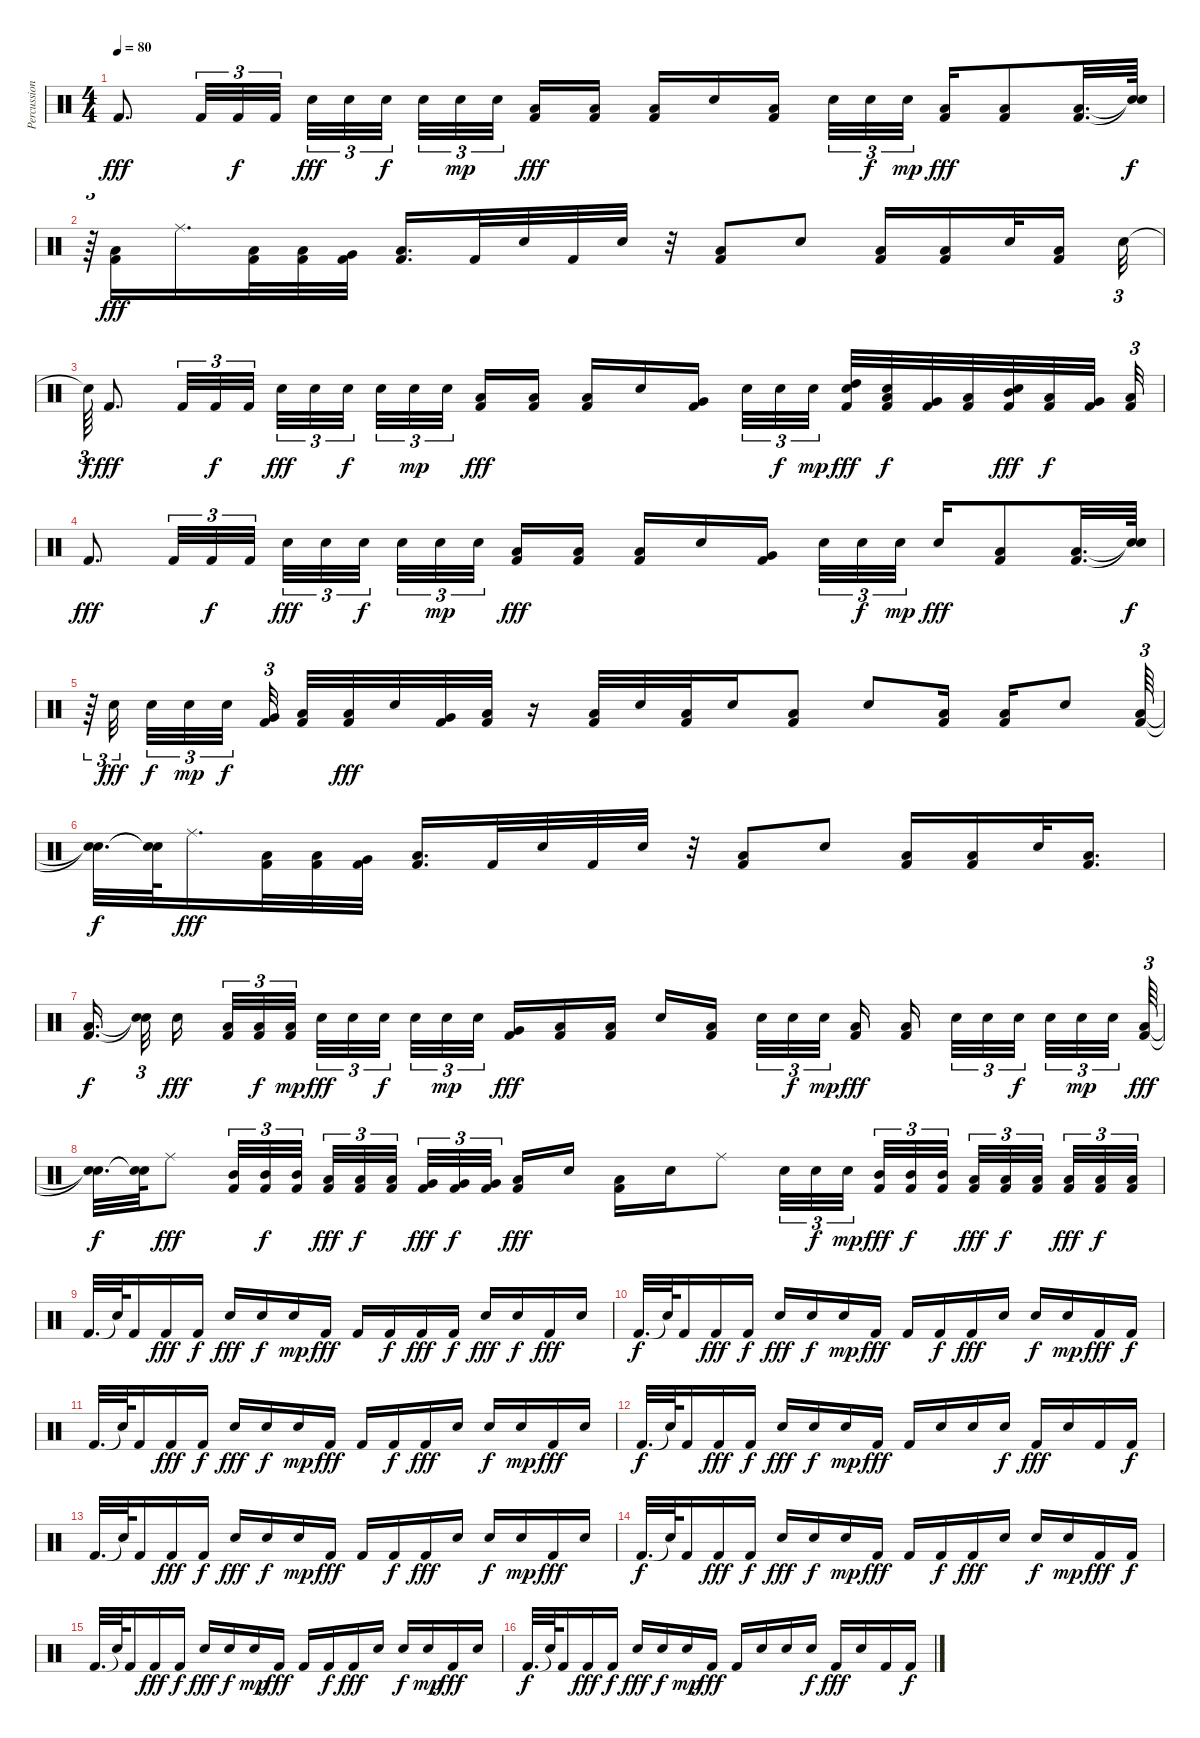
\track ("Percussion2" "Percussion") {instrument percussion}
\staff {score}
\articulation defaults
\ts (4 4)
\tempo 80
\clef neutral
\ks c "Kick (hit) 2".8{d dy fff} "Kick (hit) 2".32{tu (3 2)} "Kick (hit) 2".32{tu (3 2) dy f} "Kick (hit) 2".32{tu (3 2)} "Snare (hit) 2".32{tu (3 2) dy fff} "Snare (hit) 2".32{tu (3 2)} "Snare (hit) 2".32{tu (3 2) dy f beam splitsecondary} "Snare (hit) 2".32{tu (3 2)} "Snare (hit) 2".32{tu (3 2) dy mp} "Snare (hit) 2".32{tu (3 2) beam splitsecondary}
("Kick (hit) 2" "Low Floor Tom (hit)").16{dy fff} ("Kick (hit) 2" "Low Floor Tom (hit)").16 ("Kick (hit) 2" "Low Floor Tom (hit)").16 "Snare (hit) 2".16 ("Kick (hit) 2" "Low Tom (hit)").16{beam splitsecondary} "Snare (hit) 2".32{tu (3 2)} "Snare (hit) 2".32{tu (3 2) dy f} "Snare (hit) 2".32{tu (3 2) dy mp} ("Kick (hit) 2" "Low Floor Tom (hit)").16{dy fff} ("Kick (hit) 2" "Low Tom (hit)").8 ("Kick (hit) 2" "Low Tom (hit)").32{d} ("Snare (hit)"{t} "Snare (hit)"{t}).64{dy f} |
r.64{tu (3 2)} ("Kick (hit) 2" "Low Floor Tom (hit)").16{dy fff} "Ride (middle)".16{d} ("Kick (hit) 2" "Low Floor Tom (hit)").32 ("Kick (hit) 2" "Low Tom (hit)").32 ("Kick (hit) 2" "Very Low Tom (hit)").32 ("Kick (hit) 2" "Low Floor Tom (hit)").16{d} "Kick (hit) 2".32 "Snare (hit) 2".32 "Kick (hit) 2".32 "Snare (hit) 2".32 r.32 ("Kick (hit) 2" "Low Floor Tom (hit)").8 "Snare (hit) 2".8 ("Kick (hit) 2" "Low Floor Tom (hit)").16 ("Kick (hit) 2" "Low Floor Tom (hit)").16 "Snare (hit) 2".32 ("Kick (hit) 2" "Low Floor Tom (hit)").16{beam splitsecondary} "Snare (hit) 2".32{tu (3 2)} |
"Snare (hit)"{t}.64{tu (3 2) dy f} "Kick (hit) 2".8{d dy fff} "Kick (hit) 2".32{tu (3 2)} "Kick (hit) 2".32{tu (3 2) dy f} "Kick (hit) 2".32{tu (3 2)} "Snare (hit) 2".32{tu (3 2) dy fff} "Snare (hit) 2".32{tu (3 2)} "Snare (hit) 2".32{tu (3 2) dy f beam splitsecondary} "Snare (hit) 2".32{tu (3 2)} "Snare (hit) 2".32{tu (3 2) dy mp} "Snare (hit) 2".32{tu (3 2) beam splitsecondary} ("Kick (hit) 2" "Low Floor Tom (hit)").16{dy fff} ("Kick (hit) 2" "Low Floor Tom (hit)").16 ("Kick (hit) 2" "Low Floor Tom (hit)").16 "Snare (hit) 2".16 ("Kick (hit) 2" "Very Low Tom (hit)").16{beam splitsecondary} "Snare (hit) 2".32{tu (3 2)} "Snare (hit) 2".32{tu (3 2) dy f} "Snare (hit) 2".32{tu (3 2) dy mp} ("Kick (hit) 2" "Snare (hit) 2" "High Tom (hit)").32{dy fff} ("Kick (hit) 2" "Snare (hit) 2" "Low Tom (hit)").32{dy f} ("Kick (hit) 2" "Very Low Tom (hit)").32 ("Kick (hit) 2" "Low Floor Tom (hit)").32 ("Kick (hit) 2" "Snare (hit) 2" "Mid Tom (hit)").32{dy fff} ("Kick (hit) 2" "Low Tom (hit)").32{dy f} ("Kick (hit) 2" "Very Low Tom (hit)").32{beam splitsecondary} ("Kick (hit) 2" "Low Floor Tom (hit)").32{tu (3 2)} |
"Kick (hit) 2".8{d dy fff} "Kick (hit) 2".32{tu (3 2)} "Kick (hit) 2".32{tu (3 2) dy f} "Kick (hit) 2".32{tu (3 2)} "Snare (hit) 2".32{tu (3 2) dy fff} "Snare (hit) 2".32{tu (3 2)} "Snare (hit) 2".32{tu (3 2) dy f beam splitsecondary} "Snare (hit) 2".32{tu (3 2)} "Snare (hit) 2".32{tu (3 2) dy mp} "Snare (hit) 2".32{tu (3 2) beam splitsecondary} ("Kick (hit) 2" "Low Floor Tom (hit)").16{dy fff} ("Kick (hit) 2" "Low Floor Tom (hit)").16 ("Kick (hit) 2" "Low Floor Tom (hit)").16 "Snare (hit) 2".16 ("Kick (hit) 2" "Very Low Tom (hit)").16{beam splitsecondary} "Snare (hit) 2".32{tu (3 2)} "Snare (hit) 2".32{tu (3 2) dy f} "Snare (hit) 2".32{tu (3 2) dy mp} "Snare (hit) 2".16{dy fff} ("Kick (hit) 2" "Low Floor Tom (hit)").8 ("Kick (hit) 2" "Low Floor Tom (hit)").32{d} ("Snare (hit)"{t} "Snare (hit)"{t}).64{dy f} |
r.64{tu (3 2)} "Snare (hit) 2".32{tu (3 2) dy fff beam splitsecondary} "Snare (hit) 2".32{tu (3 2) dy f} "Snare (hit) 2".32{tu (3 2) dy mp} "Snare (hit) 2".32{tu (3 2) dy f beam splitsecondary} ("Kick (hit) 2" "Very Low Tom (hit)").32{tu (3 2) beam splitsecondary} ("Kick (hit) 2" "Low Floor Tom (hit)").32 ("Kick (hit) 2" "Low Floor Tom (hit)").32{dy fff} "Snare (hit) 2".32 ("Kick (hit) 2" "Very Low Tom (hit)").32 ("Kick (hit) 2" "Low Floor Tom (hit)").32 r.16 ("Kick (hit) 2" "Low Floor Tom (hit)").32 "Snare (hit) 2".32 ("Kick (hit) 2" "Low Floor Tom (hit)").32 "Snare (hit) 2".16 ("Kick (hit) 2" "Low Floor Tom (hit)").8 "Snare (hit) 2".8 ("Kick (hit) 2" "Low Floor Tom (hit)").16 ("Kick (hit) 2" "Low Floor Tom (hit)").16 "Snare (hit) 2".8 ("Kick (hit) 2" "Low Floor Tom (hit)").64{tu (3 2)} |
("Snare (hit)"{t} "Snare (hit)"{t}).32{d dy f} ("Snare (hit)"{t} "Snare (hit)"{t}).64 "Ride (middle)".16{d dy fff} ("Kick (hit) 2" "Low Floor Tom (hit)").32 ("Kick (hit) 2" "Low Tom (hit)").32 ("Kick (hit) 2" "Very Low Tom (hit)").32 ("Kick (hit) 2" "Low Floor Tom (hit)").16{d} "Kick (hit) 2".32 "Snare (hit) 2".32 "Kick (hit) 2".32 "Snare (hit) 2".32 r.32 ("Kick (hit) 2" "Low Floor Tom (hit)").8 "Snare (hit) 2".8 ("Kick (hit) 2" "Low Floor Tom (hit)").16 ("Kick (hit) 2" "Low Floor Tom (hit)").16 "Snare (hit) 2".32 ("Kick (hit) 2" "Low Floor Tom (hit)").16{d} |
("Kick (hit) 2" "Low Floor Tom (hit)").16{d dy f beam splitsecondary} ("Snare (hit)"{t} "Snare (hit)"{t}).32{tu (3 2) beam splitsecondary} "Snare (hit) 2".16{dy fff beam splitsecondary} ("Kick (hit) 2" "Low Floor Tom (hit)").32{tu (3 2)} ("Kick (hit) 2" "Low Floor Tom (hit)").32{tu (3 2) dy f} ("Kick (hit) 2" "Low Floor Tom (hit)").32{tu (3 2) dy mp beam splitsecondary} "Snare (hit) 2".32{tu (3 2) dy fff} "Snare (hit) 2".32{tu (3 2)} "Snare (hit) 2".32{tu (3 2) dy f beam splitsecondary} "Snare (hit) 2".32{tu (3 2)} "Snare (hit) 2".32{tu (3 2) dy mp} "Snare (hit) 2".32{tu (3 2) beam splitsecondary} ("Kick (hit) 2" "Very Low Tom (hit)").16{dy fff} ("Kick (hit) 2" "Low Floor Tom (hit)").16 ("Kick (hit) 2" "Low Floor Tom (hit)").16 "Snare (hit) 2".16 ("Kick (hit) 2" "Low Floor Tom (hit)").16{beam splitsecondary} "Snare (hit) 2".32{tu (3 2)} "Snare (hit) 2".32{tu (3 2) dy f} "Snare (hit) 2".32{tu (3 2) dy mp beam splitsecondary} ("Kick (hit) 2" "Low Floor Tom (hit)").16{dy fff} ("Kick (hit) 2" "Low Tom (hit)").16{beam splitsecondary} "Snare (hit) 2".32{tu (3 2)} "Snare (hit) 2".32{tu (3 2)} "Snare (hit) 2".32{tu (3 2) dy f beam splitsecondary} "Snare (hit) 2".32{tu (3 2)} "Snare (hit) 2".32{tu (3 2) dy mp} "Snare (hit) 2".32{tu (3 2) beam splitsecondary} ("Kick (hit) 2" "Low Floor Tom (hit)").64{tu (3 2) dy fff} |
("Snare (hit)"{t} "Snare (hit)"{t}).32{d dy f} ("Snare (hit)"{t} "Snare (hit)"{t}).64 "Ride (middle)".8{dy fff} ("Kick (hit) 2" "Mid Tom (hit)").32{tu (3 2)} ("Kick (hit) 2" "Mid Tom (hit)").32{tu (3 2) dy f} ("Kick (hit) 2" "Mid Tom (hit)").32{tu (3 2)} ("Kick (hit) 2" "Low Tom (hit)").32{tu (3 2) dy fff} ("Kick (hit) 2" "Low Tom (hit)").32{tu (3 2) dy f} ("Kick (hit) 2" "Low Tom (hit)").32{tu (3 2) beam splitsecondary} ("Kick (hit) 2" "Very Low Tom (hit)").32{tu (3 2) dy fff} ("Kick (hit) 2" "Very Low Tom (hit)").32{tu (3 2) dy f} ("Kick (hit) 2" "Very Low Tom (hit)").32{tu (3 2) beam splitsecondary} ("Kick (hit) 2" "Low Floor Tom (hit)").16{dy fff} "Snare (hit) 2".16 ("Kick (hit) 2" "Low Floor Tom (hit)").16 "Snare (hit) 2".16 "Ride (middle)".8 "Snare (hit) 2".32{tu (3 2)} "Snare (hit) 2".32{tu (3 2) dy f} "Snare (hit) 2".32{tu (3 2) dy mp beam splitsecondary} ("Kick (hit) 2" "Mid Tom (hit)").32{tu (3 2) dy fff} ("Kick (hit) 2" "Mid Tom (hit)").32{tu (3 2) dy f} ("Kick (hit) 2" "Mid Tom (hit)").32{tu (3 2) beam splitsecondary} ("Kick (hit) 2" "Low Tom (hit)").32{tu (3 2) dy fff} ("Kick (hit) 2" "Low Tom (hit)").32{tu (3 2) dy f} ("Kick (hit) 2" "Low Tom (hit)").32{tu (3 2) beam splitsecondary} ("Kick (hit) 2" "Low Floor Tom (hit)").32{tu (3 2) dy fff} ("Kick (hit) 2" "Low Floor Tom (hit)").32{tu (3 2) dy f} ("Kick (hit) 2" "Low Floor Tom (hit)").32{tu (3 2)} |
"Kick (hit) 2".32{d} "Snare (hit)"{t}.64 "Kick (hit) 2".16 "Kick (hit) 2".16{dy fff} "Kick (hit) 2".16{dy f} "Snare (hit) 2".16{dy fff} "Snare (hit) 2".16{dy f} "Snare (hit) 2".16{dy mp} "Kick (hit) 2".16{dy fff} "Kick (hit) 2".16 "Kick (hit) 2".16{dy f} "Kick (hit) 2".16{dy fff} "Kick (hit) 2".16{dy f} "Snare (hit) 2".16{dy fff} "Snare (hit) 2".16{dy f} "Kick (hit) 2".16{dy fff} "Snare (hit) 2".16 |
"Kick (hit) 2".32{d dy f} "Snare (hit)"{t}.64 "Kick (hit) 2".16 "Kick (hit) 2".16{dy fff} "Kick (hit) 2".16{dy f} "Snare (hit) 2".16{dy fff} "Snare (hit) 2".16{dy f} "Snare (hit) 2".16{dy mp} "Kick (hit) 2".16{dy fff} "Kick (hit) 2".16 "Kick (hit) 2".16{dy f} "Kick (hit) 2".16{dy fff} "Snare (hit) 2".16 "Snare (hit) 2".16{dy f} "Snare (hit) 2".16{dy mp} "Kick (hit) 2".16{dy fff} "Kick (hit) 2".16{dy f} |
"Kick (hit) 2".32{d} "Snare (hit)"{t}.64 "Kick (hit) 2".16 "Kick (hit) 2".16{dy fff} "Kick (hit) 2".16{dy f} "Snare (hit) 2".16{dy fff} "Snare (hit) 2".16{dy f} "Snare (hit) 2".16{dy mp} "Kick (hit) 2".16{dy fff} "Kick (hit) 2".16 "Kick (hit) 2".16{dy f} "Kick (hit) 2".16{dy fff} "Snare (hit) 2".16 "Snare (hit) 2".16{dy f} "Snare (hit) 2".16{dy mp} "Kick (hit) 2".16{dy fff} "Snare (hit) 2".16 |
"Kick (hit) 2".32{d dy f} "Snare (hit)"{t}.64 "Kick (hit) 2".16 "Kick (hit) 2".16{dy fff} "Kick (hit) 2".16{dy f} "Snare (hit) 2".16{dy fff} "Snare (hit) 2".16{dy f} "Snare (hit) 2".16{dy mp} "Kick (hit) 2".16{dy fff} "Kick (hit) 2".16 "Snare (hit) 2".16 "Snare (hit) 2".16 "Snare (hit) 2".16{dy f} "Kick (hit) 2".16{dy fff} "Snare (hit) 2".16 "Kick (hit) 2".16 "Kick (hit) 2".16{dy f} |
"Kick (hit) 2".32{d} "Snare (hit)"{t}.64 "Kick (hit) 2".16 "Kick (hit) 2".16{dy fff} "Kick (hit) 2".16{dy f} "Snare (hit) 2".16{dy fff} "Snare (hit) 2".16{dy f} "Snare (hit) 2".16{dy mp} "Kick (hit) 2".16{dy fff} "Kick (hit) 2".16 "Kick (hit) 2".16{dy f} "Kick (hit) 2".16{dy fff} "Snare (hit) 2".16 "Snare (hit) 2".16{dy f} "Snare (hit) 2".16{dy mp} "Kick (hit) 2".16{dy fff} "Snare (hit) 2".16 |
"Kick (hit) 2".32{d dy f} "Snare (hit)"{t}.64 "Kick (hit) 2".16 "Kick (hit) 2".16{dy fff} "Kick (hit) 2".16{dy f} "Snare (hit) 2".16{dy fff} "Snare (hit) 2".16{dy f} "Snare (hit) 2".16{dy mp} "Kick (hit) 2".16{dy fff} "Kick (hit) 2".16 "Kick (hit) 2".16{dy f} "Kick (hit) 2".16{dy fff} "Snare (hit) 2".16 "Snare (hit) 2".16{dy f} "Snare (hit) 2".16{dy mp} "Kick (hit) 2".16{dy fff} "Kick (hit) 2".16{dy f} |
"Kick (hit) 2".32{d} "Snare (hit)"{t}.64 "Kick (hit) 2".16 "Kick (hit) 2".16{dy fff} "Kick (hit) 2".16{dy f} "Snare (hit) 2".16{dy fff} "Snare (hit) 2".16{dy f} "Snare (hit) 2".16{dy mp} "Kick (hit) 2".16{dy fff} "Kick (hit) 2".16 "Kick (hit) 2".16{dy f} "Kick (hit) 2".16{dy fff} "Snare (hit) 2".16 "Snare (hit) 2".16{dy f} "Snare (hit) 2".16{dy mp} "Kick (hit) 2".16{dy fff} "Snare (hit) 2".16 |
"Kick (hit) 2".32{d dy f} "Snare (hit)"{t}.64 "Kick (hit) 2".16 "Kick (hit) 2".16{dy fff} "Kick (hit) 2".16{dy f} "Snare (hit) 2".16{dy fff} "Snare (hit) 2".16{dy f} "Snare (hit) 2".16{dy mp} "Kick (hit) 2".16{dy fff} "Kick (hit) 2".16 "Snare (hit) 2".16 "Snare (hit) 2".16 "Snare (hit) 2".16{dy f} "Kick (hit) 2".16{dy fff} "Snare (hit) 2".16 "Kick (hit) 2".16 "Kick (hit) 2".16{dy f}
